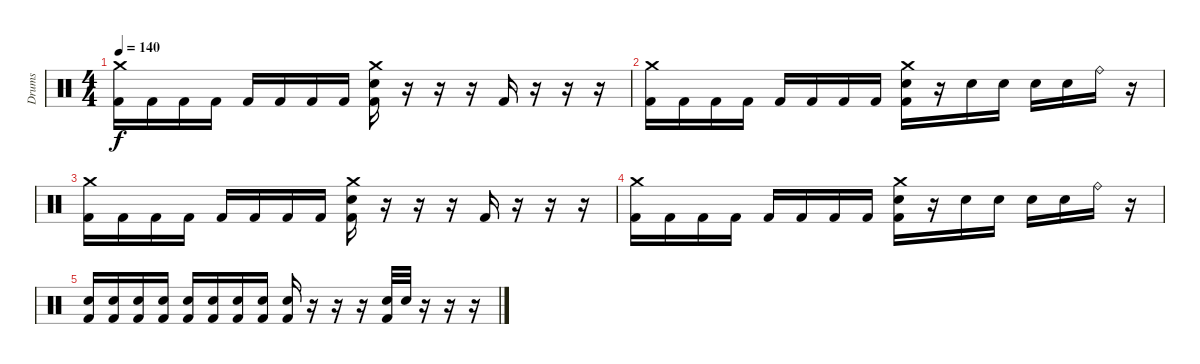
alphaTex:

\track ("Drums" "Drums") {instrument percussion}
\staff {score}
\articulation defaults
\ts (4 4)
\tempo 140
\clef neutral
\ks c
("Crash medium (hit)" "Kick (hit) 2").16{dy f} "Kick (hit) 2".16 "Kick (hit) 2".16 "Kick (hit) 2".16 "Kick (hit) 2".16 "Kick (hit) 2".16 "Kick (hit) 2".16 "Kick (hit) 2".16 ("Crash medium (hit)" "Electric Snare (hit)" "Kick (hit) 2").16 r.16 r.16 r.16 "Kick (hit) 2".16 r.16 r.16 r.16 |
("Crash medium (hit)" "Kick (hit) 2").16 "Kick (hit) 2".16 "Kick (hit) 2".16 "Kick (hit) 2".16 "Kick (hit) 2".16 "Kick (hit) 2".16 "Kick (hit) 2".16 "Kick (hit) 2".16 ("Crash medium (hit)" "Electric Snare (hit)" "Kick (hit) 2").16 r.16 "Electric Snare (hit)".16 "Electric Snare (hit)".16 "Electric Snare (hit)".16 "Electric Snare (hit)".16 "Ride (bell)".16 r.16 |
("Crash medium (hit)" "Kick (hit) 2").16 "Kick (hit) 2".16 "Kick (hit) 2".16 "Kick (hit) 2".16 "Kick (hit) 2".16 "Kick (hit) 2".16 "Kick (hit) 2".16 "Kick (hit) 2".16 ("Crash medium (hit)" "Electric Snare (hit)" "Kick (hit) 2").16 r.16 r.16 r.16 "Kick (hit) 2".16 r.16 r.16 r.16 |
("Crash medium (hit)" "Kick (hit) 2").16 "Kick (hit) 2".16 "Kick (hit) 2".16 "Kick (hit) 2".16 "Kick (hit) 2".16 "Kick (hit) 2".16 "Kick (hit) 2".16 "Kick (hit) 2".16 ("Crash medium (hit)" "Electric Snare (hit)" "Kick (hit) 2").16 r.16 "Electric Snare (hit)".16 "Electric Snare (hit)".16 "Electric Snare (hit)".16 "Electric Snare (hit)".16 "Ride (bell)".16 r.16 |
("Electric Snare (hit)" "Kick (hit) 2").16 ("Electric Snare (hit)" "Kick (hit) 2").16 ("Electric Snare (hit)" "Kick (hit) 2").16 ("Electric Snare (hit)" "Kick (hit) 2").16 ("Electric Snare (hit)" "Kick (hit) 2").16 ("Electric Snare (hit)" "Kick (hit) 2").16 ("Electric Snare (hit)" "Kick (hit) 2").16 ("Electric Snare (hit)" "Kick (hit) 2").16 ("Electric Snare (hit)" "Kick (hit) 2").16 r.16 r.16 r.16 ("Electric Snare (hit)" "Kick (hit) 2").32 "Electric Snare (hit)".32 r.16 r.16 r.16
